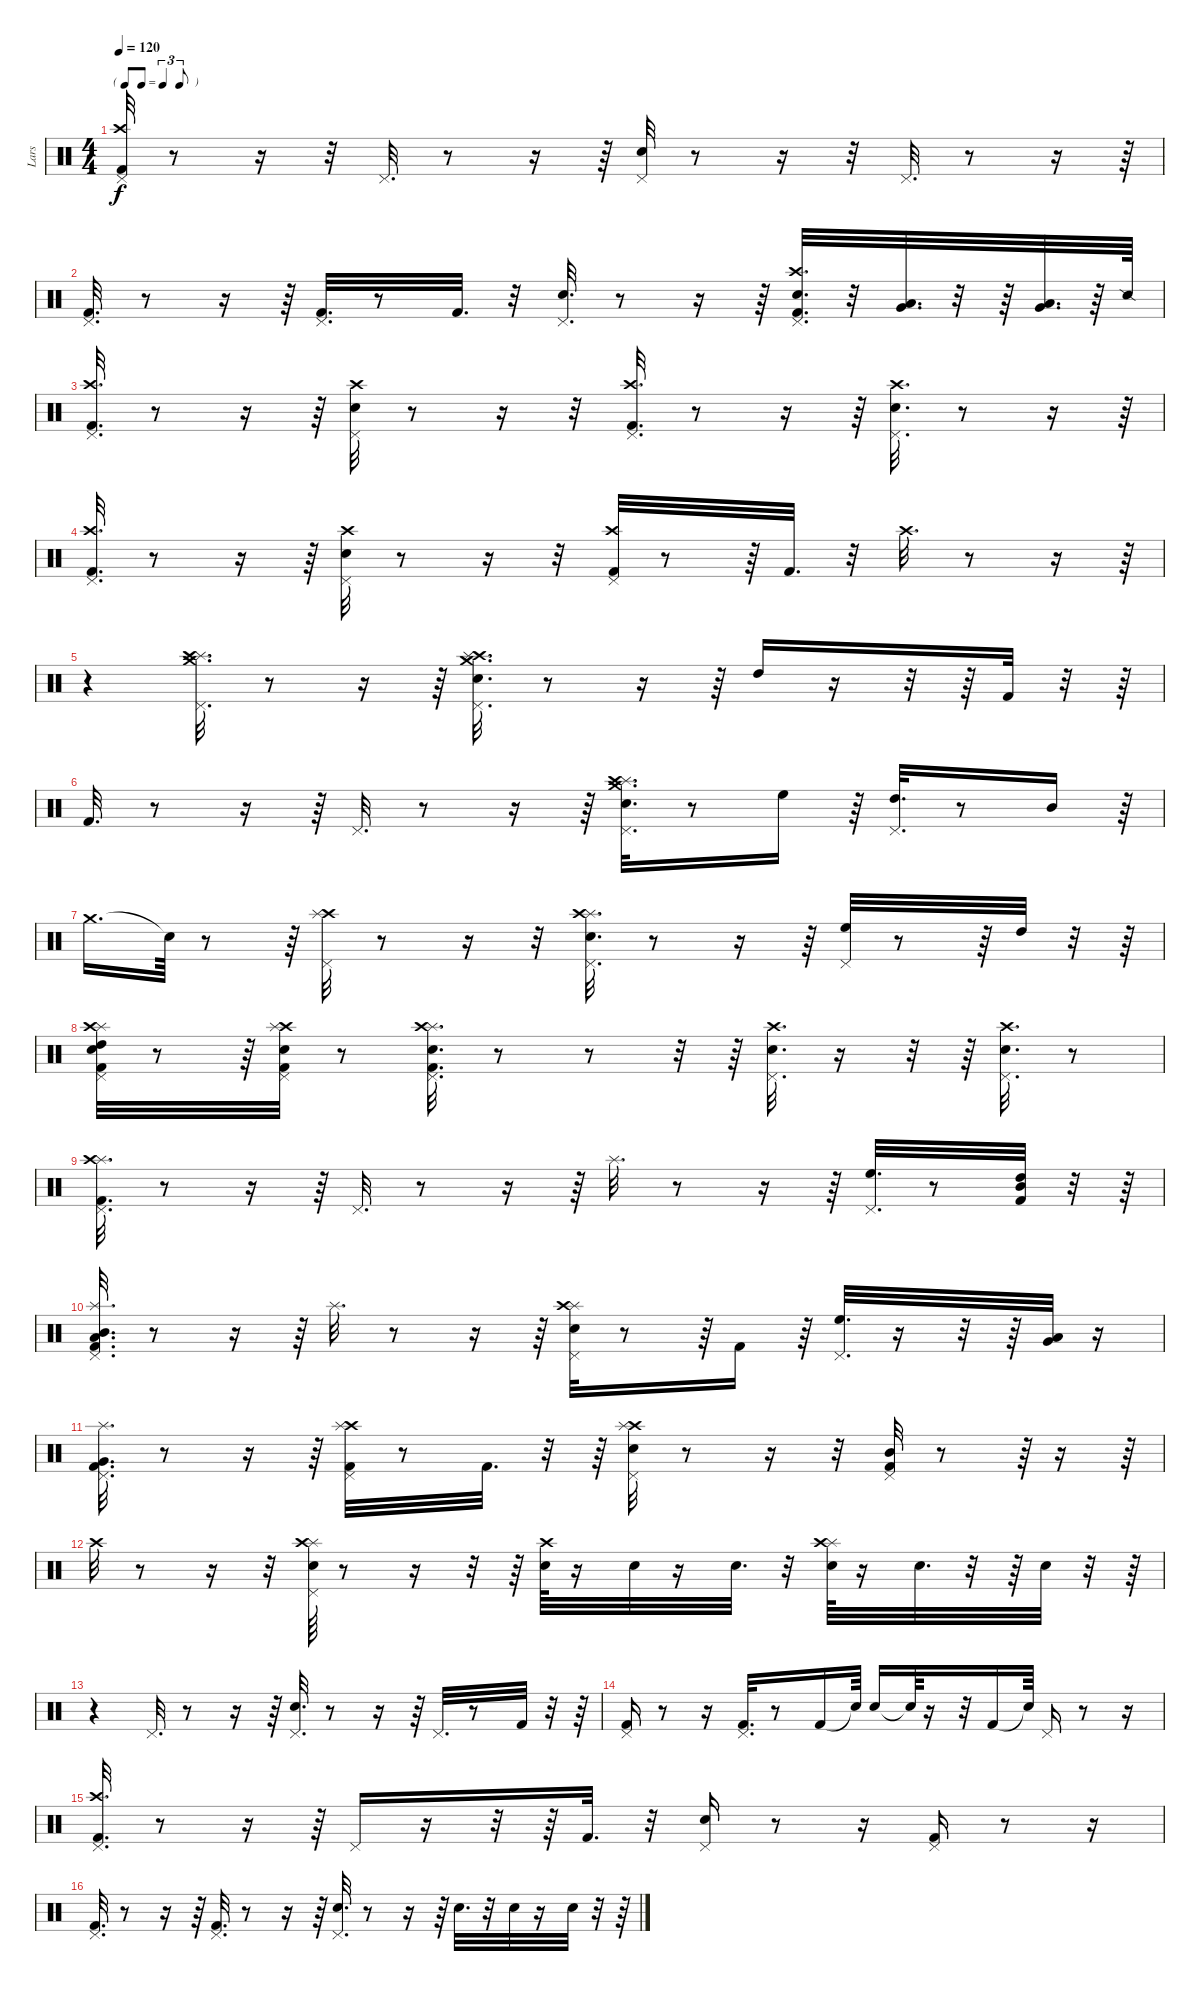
\track ("Lars" "Lars") {instrument percussion}
\staff {score}
\articulation defaults
\ts (4 4)
\tf triplet8th
\tempo 120
\clef neutral
\ks c
("Kick (hit) 2" "Crash high (hit)" "Pedal Hi-Hat (hit)").32{dy f} r.8 r.16 r.32 "Pedal Hi-Hat (hit)".32{d} r.8 r.16 r.64 ("Electric Snare (hit)" "Pedal Hi-Hat (hit)").32 r.8 r.16 r.32 "Pedal Hi-Hat (hit)".32{d} r.8 r.16 r.64 |
("Kick (hit) 2" "Pedal Hi-Hat (hit)").32{d} r.8 r.16 r.64 ("Kick (hit) 2" "Pedal Hi-Hat (hit)").32{d} r.8 "Kick (hit) 2".32{d} r.32 ("Pedal Hi-Hat (hit)" "Electric Snare (hit)").32{d} r.8 r.16 r.64 ("Electric Snare (hit)" "Kick (hit) 2" "Crash high (hit)" "Pedal Hi-Hat (hit)").32{d} r.32 ("Low Tom (hit)" "Very Low Tom (hit)").32{d} r.32 r.64 ("Very Low Tom (hit)" "Low Floor Tom (hit)").32{d} r.64 "Snare (side stick) 2".64 |
("Kick (hit) 2" "Pedal Hi-Hat (hit)" "Crash high (hit)").32{d} r.8 r.16 r.64 ("Crash high (hit)" "Pedal Hi-Hat (hit)" "Electric Snare (hit)").32 r.8 r.16 r.32 ("Kick (hit) 2" "Pedal Hi-Hat (hit)" "Crash high (hit)").32{d} r.8 r.16 r.64 ("Electric Snare (hit)" "Pedal Hi-Hat (hit)" "Crash high (hit)").32{d} r.8 r.16 r.64 |
("Kick (hit) 2" "Pedal Hi-Hat (hit)" "Crash high (hit)").32{d} r.8 r.16 r.64 ("Pedal Hi-Hat (hit)" "Electric Snare (hit)" "Crash high (hit)").32 r.8 r.16 r.32 ("Kick (hit) 2" "Pedal Hi-Hat (hit)" "Crash high (hit)").32 r.8 r.64 "Kick (hit) 2".32{d} r.32 "Crash high (hit)".32{d} r.8 r.16 r.64 |
r.4 ("Pedal Hi-Hat (hit)" "Splash (hit)" "Crash medium (hit)" "Crash high (hit)").32{d} r.8 r.16 r.64 ("Electric Snare (hit)" "Crash high (hit)" "Crash medium (hit)" "Splash (hit)" "Pedal Hi-Hat (hit)").32{d} r.8 r.16 r.64 "High Tom (hit)".16 r.16 r.32 r.64 "Kick (hit) 2".32 r.32 r.64 |
"Kick (hit) 2".32{d} r.8 r.16 r.64 "Pedal Hi-Hat (hit)".32{d} r.8 r.16 r.64 ("Electric Snare (hit)" "Splash (hit)" "Crash medium (hit)" "Pedal Hi-Hat (hit)" "Crash high (hit)").32{d} r.8 "High Floor Tom (hit)".16 r.64 ("High Tom (hit)" "Pedal Hi-Hat (hit)").32{d} r.8 "Mid Tom (hit)".16 r.64 |
"Crash medium (hit)".16{d} "Snare (hit)"{t}.64 r.8 r.64 ("Pedal Hi-Hat (hit)" "Crash high (hit)" "Splash (hit)").32 r.8 r.16 r.32 ("Electric Snare (hit)" "Pedal Hi-Hat (hit)" "Splash (hit)" "Crash high (hit)").32{d} r.8 r.16 r.64 ("Pedal Hi-Hat (hit)" "High Floor Tom (hit)").32 r.8 r.64 "High Tom (hit)".32 r.32 r.64 |
("Electric Snare (hit)" "Splash (hit)" "Kick (hit) 2" "Pedal Hi-Hat (hit)" "Crash high (hit)" "High Tom (hit)").32 r.8 r.64 ("Kick (hit) 2" "Electric Snare (hit)" "Pedal Hi-Hat (hit)" "Crash high (hit)" "Splash (hit)").32 r.8 ("Kick (hit) 2" "Splash (hit)" "Electric Snare (hit)" "Pedal Hi-Hat (hit)" "Crash high (hit)").32{d} r.8 r.8 r.32 r.64 ("Electric Snare (hit)" "Pedal Hi-Hat (hit)" "Crash high (hit)").32{d} r.16 r.32 r.64 ("Electric Snare (hit)" "Crash high (hit)" "Pedal Hi-Hat (hit)").32{d} r.8 |
("Kick (hit) 2" "Pedal Hi-Hat (hit)" "Splash (hit)" "Crash high (hit)").32{d} r.8 r.16 r.64 "Pedal Hi-Hat (hit)".32{d} r.8 r.16 r.64 "Splash (hit)".32{d} r.8 r.16 r.64 ("Pedal Hi-Hat (hit)" "High Floor Tom (hit)").32{d} r.8 ("Mid Tom (hit)" "High Tom (hit)" "Kick (hit) 2").32 r.32 r.64 |
("Splash (hit)" "Kick (hit) 2" "Pedal Hi-Hat (hit)" "Low Tom (hit)" "Mid Tom (hit)").32{d} r.8 r.16 r.64 "Splash (hit)".32{d} r.8 r.16 r.64 ("Splash (hit)" "Crash high (hit)" "Pedal Hi-Hat (hit)" "Electric Snare (hit)").32 r.8 r.64 "Kick (hit) 2".16 r.64 ("Pedal Hi-Hat (hit)" "High Floor Tom (hit)").32{d} r.16 r.32 r.64 ("Low Tom (hit)" "Very Low Tom (hit)").32 r.16 |
("Splash (hit)" "Very Low Tom (hit)" "Kick (hit) 2" "Pedal Hi-Hat (hit)").32{d} r.8 r.16 r.64 ("Pedal Hi-Hat (hit)" "Crash high (hit)" "Splash (hit)" "Kick (hit) 2").32 r.8 "Kick (hit) 2".32{d} r.32 r.64 ("Crash high (hit)" "Pedal Hi-Hat (hit)" "Electric Snare (hit)" "Splash (hit)").32 r.8 r.16 r.32 ("Kick (hit) 2" "Pedal Hi-Hat (hit)" "Mid Tom (hit)").32 r.8 r.64 r.16 r.64 |
"Crash high (hit)".32 r.8 r.16 r.32 ("Electric Snare (hit)" "Pedal Hi-Hat (hit)" "Splash (hit)" "Crash high (hit)").64 r.8 r.16 r.32 r.64 ("Crash high (hit)" "Electric Snare (hit)").64 r.16 "Electric Snare (hit)".32 r.16 "Electric Snare (hit)".32{d} r.32 ("Splash (hit)" "Crash high (hit)" "Electric Snare (hit)").64 r.16 "Electric Snare (hit)".32{d} r.32 r.64 "Electric Snare (hit)".32 r.32 r.64 |
r.4 "Pedal Hi-Hat (hit)".32{d} r.8 r.16 r.64 ("Electric Snare (hit)" "Pedal Hi-Hat (hit)").32{d} r.8 r.16 r.64 "Pedal Hi-Hat (hit)".32{d} r.8 "Kick (hit) 2".32 r.32 r.64 |
("Kick (hit) 2" "Pedal Hi-Hat (hit)").16 r.8 r.16 ("Pedal Hi-Hat (hit)" "Kick (hit) 2").32{d} r.8 "Kick (hit) 2".16 "Snare (hit)"{t}.64 "Electric Snare (hit)".16 "Snare (hit)"{t}.64 r.16 r.32 "Kick (hit) 2".16 "Snare (hit)"{t}.64 "Pedal Hi-Hat (hit)".16 r.8 r.16 |
("Kick (hit) 2" "Pedal Hi-Hat (hit)" "Crash high (hit)").32{d} r.8 r.16 r.64 "Pedal Hi-Hat (hit)".16 r.16 r.32 r.64 "Kick (hit) 2".32{d} r.32 ("Pedal Hi-Hat (hit)" "Electric Snare (hit)").16 r.8 r.16 ("Kick (hit) 2" "Pedal Hi-Hat (hit)").16 r.8 r.16 |
("Kick (hit) 2" "Pedal Hi-Hat (hit)").32{d} r.8 r.16 r.64 ("Kick (hit) 2" "Pedal Hi-Hat (hit)").32{d} r.8 r.16 r.64 ("Electric Snare (hit)" "Pedal Hi-Hat (hit)").32{d} r.8 r.16 r.64 "Electric Snare (hit)".32{d} r.32 "Electric Snare (hit)".32 r.16 "Electric Snare (hit)".32 r.32 r.64
